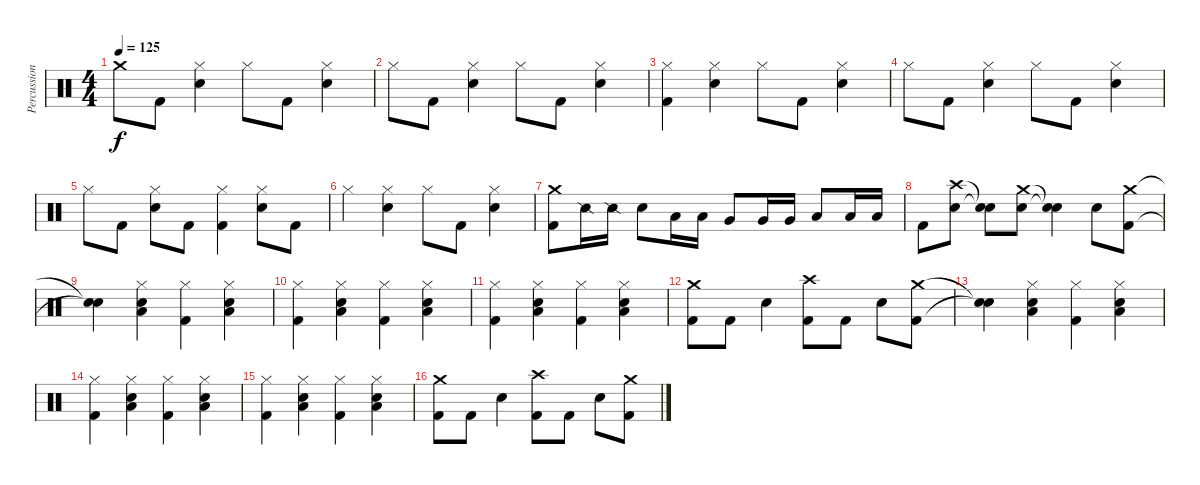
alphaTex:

\track ("Percussion" "Percussion") {instrument percussion}
\staff {score}
\articulation defaults
\ts (4 4)
\tempo 125
\clef neutral
\ks c "Crash medium (hit)".8{dy f} "Kick (hit) 2".8
("Hi-Hat (closed)" "Metronome (bell)").4 "Hi-Hat (closed)".8 "Kick (hit) 2".8 ("Hi-Hat (closed)" "Metronome (bell)").4 |
"Hi-Hat (closed)".8 "Kick (hit) 2".8 ("Hi-Hat (closed)" "Metronome (bell)").4 "Hi-Hat (closed)".8 "Kick (hit) 2".8 ("Hi-Hat (closed)" "Metronome (bell)").4 |
("Hi-Hat (closed)" "Kick (hit) 2").4 ("Hi-Hat (closed)" "Metronome (bell)").4 "Hi-Hat (closed)".8 "Kick (hit) 2".8 ("Hi-Hat (closed)" "Metronome (bell)").4 |
"Hi-Hat (closed)".8 "Kick (hit) 2".8 ("Hi-Hat (closed)" "Metronome (bell)").4 "Hi-Hat (closed)".8 "Kick (hit) 2".8 ("Hi-Hat (closed)" "Metronome (bell)").4 |
"Hi-Hat (closed)".8 "Kick (hit) 2".8 ("Hi-Hat (closed)" "Metronome (bell)").8 "Kick (hit) 2".8 ("Hi-Hat (closed)" "Kick (hit) 2").4 ("Hi-Hat (closed)" "Metronome (bell)").8 "Kick (hit) 2".8 |
"Hi-Hat (closed)".4 ("Hi-Hat (closed)" "Metronome (bell)").4 "Hi-Hat (closed)".8 "Kick (hit) 2".8 ("Hi-Hat (closed)" "Metronome (bell)").4 |
("Crash medium (hit)" "Kick (hit) 2").8 "Snare (side stick) 2".16 "Snare (side stick) 2".16 "Electric Snare (hit)".8 "Low Tom (hit)".16 "Low Tom (hit)".16 "Very Low Tom (hit)".8 "Very Low Tom (hit)".16 "Very Low Tom (hit)".16 "Low Floor Tom (hit)".8 "Low Floor Tom (hit)".16 "Low Floor Tom (hit)".16 |
"Kick (hit) 2".8 ("Crash high (hit)" "Metronome (bell)").8 ("Snare (hit)"{t} "Snare (hit)"{t}).8 ("Crash medium (hit)" "Metronome (bell)").8 ("Snare (hit)"{t} "Snare (hit)"{t}).4 "Metronome (bell)".8 ("Crash medium (hit)" "Kick (hit) 2").8 |
("Snare (hit)"{t} "Snare (hit)"{t}).4 ("Hi-Hat (closed)" "Low Floor Tom (hit)" "Metronome (bell)").4 ("Hi-Hat (closed)" "Kick (hit) 2").4 ("Hi-Hat (closed)" "Low Floor Tom (hit)" "Metronome (bell)").4 |
("Hi-Hat (closed)" "Kick (hit) 2").4 ("Hi-Hat (closed)" "Low Floor Tom (hit)" "Metronome (bell)").4 ("Hi-Hat (closed)" "Kick (hit) 2").4 ("Hi-Hat (closed)" "Low Floor Tom (hit)" "Metronome (bell)").4 |
("Hi-Hat (closed)" "Kick (hit) 2").4 ("Hi-Hat (closed)" "Low Floor Tom (hit)" "Metronome (bell)").4 ("Hi-Hat (closed)" "Kick (hit) 2").4 ("Hi-Hat (closed)" "Low Floor Tom (hit)" "Metronome (bell)").4 |
("Crash medium (hit)" "Kick (hit) 2").8 "Kick (hit) 2".8 "Metronome (bell)".4 ("Crash high (hit)" "Kick (hit) 2").8 "Kick (hit) 2".8 "Metronome (bell)".8 ("Crash medium (hit)" "Kick (hit) 2").8 |
("Snare (hit)"{t} "Snare (hit)"{t}).4 ("Hi-Hat (closed)" "Low Floor Tom (hit)" "Metronome (bell)").4 ("Hi-Hat (closed)" "Kick (hit) 2").4 ("Hi-Hat (closed)" "Low Floor Tom (hit)" "Metronome (bell)").4 |
("Hi-Hat (closed)" "Kick (hit) 2").4 ("Hi-Hat (closed)" "Low Floor Tom (hit)" "Metronome (bell)").4 ("Hi-Hat (closed)" "Kick (hit) 2").4 ("Hi-Hat (closed)" "Low Floor Tom (hit)" "Metronome (bell)").4 |
("Hi-Hat (closed)" "Kick (hit) 2").4 ("Hi-Hat (closed)" "Low Floor Tom (hit)" "Metronome (bell)").4 ("Hi-Hat (closed)" "Kick (hit) 2").4 ("Hi-Hat (closed)" "Low Floor Tom (hit)" "Metronome (bell)").4 |
("Crash medium (hit)" "Kick (hit) 2").8 "Kick (hit) 2".8 "Metronome (bell)".4 ("Crash high (hit)" "Kick (hit) 2").8 "Kick (hit) 2".8 "Metronome (bell)".8 ("Crash medium (hit)" "Kick (hit) 2").8
